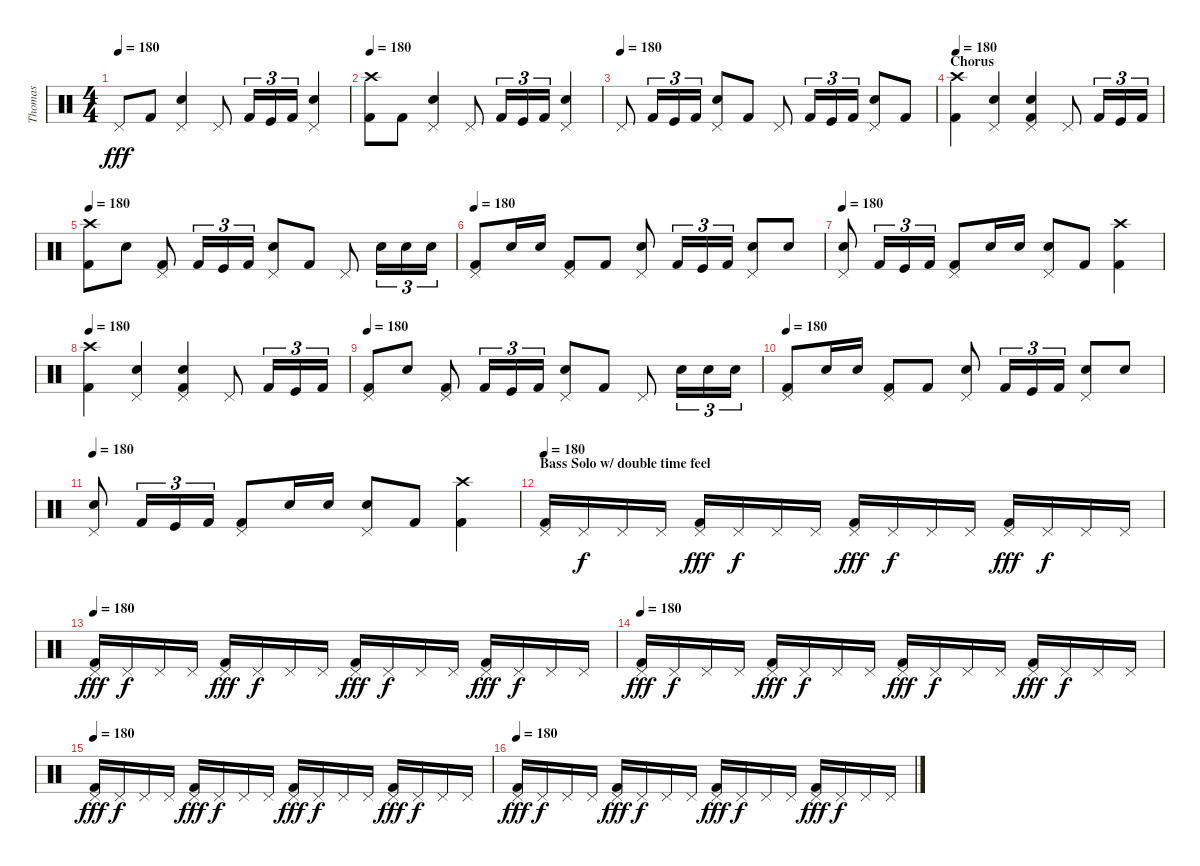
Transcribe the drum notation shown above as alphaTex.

\track ("Thomas" "Thomas") {instrument percussion}
\staff {score}
\articulation defaults
\ts (4 4)
\tempo 180
\clef neutral
\ks c "Pedal Hi-Hat (hit)".8{dy fff} "Kick (hit) 2".8
("Pedal Hi-Hat (hit)" "Snare (hit) 2").4 "Pedal Hi-Hat (hit)".8 "Kick (hit) 2".16{tu (3 2)} "Kick (hit)".16{tu (3 2)} "Kick (hit) 2".16{tu (3 2)} ("Pedal Hi-Hat (hit)" "Snare (hit) 2").4 |
\tempo 180
("Crash high (hit)" "Kick (hit) 2").8 "Kick (hit) 2".8 ("Pedal Hi-Hat (hit)" "Snare (hit) 2").4 "Pedal Hi-Hat (hit)".8 "Kick (hit) 2".16{tu (3 2)} "Kick (hit)".16{tu (3 2)} "Kick (hit) 2".16{tu (3 2)} ("Pedal Hi-Hat (hit)" "Snare (hit) 2").4 |
\tempo (180)
"Pedal Hi-Hat (hit)".8 "Kick (hit) 2".16{tu (3 2)} "Kick (hit)".16{tu (3 2)} "Kick (hit) 2".16{tu (3 2)} ("Pedal Hi-Hat (hit)" "Snare (hit) 2").8 "Kick (hit) 2".8 "Pedal Hi-Hat (hit)".8 "Kick (hit) 2".16{tu (3 2)} "Kick (hit)".16{tu (3 2)} "Kick (hit) 2".16{tu (3 2)} ("Pedal Hi-Hat (hit)" "Snare (hit) 2").8 "Kick (hit) 2".8 |
\section ("" "Chorus")
\tempo 180
("Crash high (hit)" "Kick (hit) 2").4 ("Pedal Hi-Hat (hit)" "Snare (hit) 2").4 ("Pedal Hi-Hat (hit)" "Snare (hit) 2" "Kick (hit) 2").4 "Pedal Hi-Hat (hit)".8 "Kick (hit) 2".16{tu (3 2)} "Kick (hit)".16{tu (3 2)} "Kick (hit) 2".16{tu (3 2)} |
\tempo 180
("Crash high (hit)" "Kick (hit) 2").8 "Snare (hit) 2".8 ("Pedal Hi-Hat (hit)" "Kick (hit) 2").8 "Kick (hit) 2".16{tu (3 2)} "Kick (hit)".16{tu (3 2)} "Kick (hit) 2".16{tu (3 2)} ("Pedal Hi-Hat (hit)" "Snare (hit) 2").8 "Kick (hit) 2".8 "Pedal Hi-Hat (hit)".8 "Snare (hit) 2".16{tu (3 2)} "Snare (hit) 2".16{tu (3 2)} "Snare (hit) 2".16{tu (3 2)} |
\tempo 180
("Pedal Hi-Hat (hit)" "Kick (hit) 2").8 "Snare (hit) 2".16 "Snare (hit) 2".16 ("Pedal Hi-Hat (hit)" "Kick (hit) 2").8 "Kick (hit) 2".8 ("Pedal Hi-Hat (hit)" "Snare (hit) 2").8 "Kick (hit) 2".16{tu (3 2)} "Kick (hit)".16{tu (3 2)} "Kick (hit) 2".16{tu (3 2)} ("Pedal Hi-Hat (hit)" "Snare (hit) 2").8 "Snare (hit) 2".8 |
\tempo 180
("Pedal Hi-Hat (hit)" "Snare (hit) 2").8 "Kick (hit) 2".16{tu (3 2)} "Kick (hit)".16{tu (3 2)} "Kick (hit) 2".16{tu (3 2)} ("Pedal Hi-Hat (hit)" "Kick (hit) 2").8 "Snare (hit) 2".16 "Snare (hit) 2".16 ("Pedal Hi-Hat (hit)" "Snare (hit) 2").8 "Kick (hit) 2".8 ("Crash high (hit)" "Kick (hit) 2").4 |
\tempo 180
("Crash high (hit)" "Kick (hit) 2").4 ("Pedal Hi-Hat (hit)" "Snare (hit) 2").4 ("Pedal Hi-Hat (hit)" "Snare (hit) 2" "Kick (hit) 2").4 "Pedal Hi-Hat (hit)".8 "Kick (hit) 2".16{tu (3 2)} "Kick (hit)".16{tu (3 2)} "Kick (hit) 2".16{tu (3 2)} |
\tempo 180
("Pedal Hi-Hat (hit)" "Kick (hit) 2").8 "Snare (hit) 2".8 ("Pedal Hi-Hat (hit)" "Kick (hit) 2").8 "Kick (hit) 2".16{tu (3 2)} "Kick (hit)".16{tu (3 2)} "Kick (hit) 2".16{tu (3 2)} ("Pedal Hi-Hat (hit)" "Snare (hit) 2").8 "Kick (hit) 2".8 "Pedal Hi-Hat (hit)".8 "Snare (hit) 2".16{tu (3 2)} "Snare (hit) 2".16{tu (3 2)} "Snare (hit) 2".16{tu (3 2)} |
\tempo 180
("Pedal Hi-Hat (hit)" "Kick (hit) 2").8 "Snare (hit) 2".16 "Snare (hit) 2".16 ("Pedal Hi-Hat (hit)" "Kick (hit) 2").8 "Kick (hit) 2".8 ("Pedal Hi-Hat (hit)" "Snare (hit) 2").8 "Kick (hit) 2".16{tu (3 2)} "Kick (hit)".16{tu (3 2)} "Kick (hit) 2".16{tu (3 2)} ("Pedal Hi-Hat (hit)" "Snare (hit) 2").8 "Snare (hit) 2".8 |
\tempo 180
("Pedal Hi-Hat (hit)" "Snare (hit) 2").8 "Kick (hit) 2".16{tu (3 2)} "Kick (hit)".16{tu (3 2)} "Kick (hit) 2".16{tu (3 2)} ("Pedal Hi-Hat (hit)" "Kick (hit) 2").8 "Snare (hit) 2".16 "Snare (hit) 2".16 ("Pedal Hi-Hat (hit)" "Snare (hit) 2").8 "Kick (hit) 2".8 ("Crash high (hit)" "Kick (hit) 2").4 |
\section ("" "Bass Solo w/ double time feel")
\tempo 180
("Pedal Hi-Hat (hit)" "Kick (hit) 2").16 "Pedal Hi-Hat (hit)".16{dy f} "Pedal Hi-Hat (hit)".16 "Pedal Hi-Hat (hit)".16 ("Pedal Hi-Hat (hit)" "Kick (hit) 2").16{dy fff} "Pedal Hi-Hat (hit)".16{dy f} "Pedal Hi-Hat (hit)".16 "Pedal Hi-Hat (hit)".16 ("Pedal Hi-Hat (hit)" "Kick (hit) 2").16{dy fff} "Pedal Hi-Hat (hit)".16{dy f} "Pedal Hi-Hat (hit)".16 "Pedal Hi-Hat (hit)".16 ("Pedal Hi-Hat (hit)" "Kick (hit) 2").16{dy fff} "Pedal Hi-Hat (hit)".16{dy f} "Pedal Hi-Hat (hit)".16 "Pedal Hi-Hat (hit)".16 |
\tempo 180
("Pedal Hi-Hat (hit)" "Kick (hit) 2").16{dy fff} "Pedal Hi-Hat (hit)".16{dy f} "Pedal Hi-Hat (hit)".16 "Pedal Hi-Hat (hit)".16 ("Pedal Hi-Hat (hit)" "Kick (hit) 2").16{dy fff} "Pedal Hi-Hat (hit)".16{dy f} "Pedal Hi-Hat (hit)".16 "Pedal Hi-Hat (hit)".16 ("Pedal Hi-Hat (hit)" "Kick (hit) 2").16{dy fff} "Pedal Hi-Hat (hit)".16{dy f} "Pedal Hi-Hat (hit)".16 "Pedal Hi-Hat (hit)".16 ("Pedal Hi-Hat (hit)" "Kick (hit) 2").16{dy fff} "Pedal Hi-Hat (hit)".16{dy f} "Pedal Hi-Hat (hit)".16 "Pedal Hi-Hat (hit)".16 |
\tempo 180
("Pedal Hi-Hat (hit)" "Kick (hit) 2").16{dy fff} "Pedal Hi-Hat (hit)".16{dy f} "Pedal Hi-Hat (hit)".16 "Pedal Hi-Hat (hit)".16 ("Pedal Hi-Hat (hit)" "Kick (hit) 2").16{dy fff} "Pedal Hi-Hat (hit)".16{dy f} "Pedal Hi-Hat (hit)".16 "Pedal Hi-Hat (hit)".16 ("Pedal Hi-Hat (hit)" "Kick (hit) 2").16{dy fff} "Pedal Hi-Hat (hit)".16{dy f} "Pedal Hi-Hat (hit)".16 "Pedal Hi-Hat (hit)".16 ("Pedal Hi-Hat (hit)" "Kick (hit) 2").16{dy fff} "Pedal Hi-Hat (hit)".16{dy f} "Pedal Hi-Hat (hit)".16 "Pedal Hi-Hat (hit)".16 |
\tempo 180
("Pedal Hi-Hat (hit)" "Kick (hit) 2").16{dy fff} "Pedal Hi-Hat (hit)".16{dy f} "Pedal Hi-Hat (hit)".16 "Pedal Hi-Hat (hit)".16 ("Pedal Hi-Hat (hit)" "Kick (hit) 2").16{dy fff} "Pedal Hi-Hat (hit)".16{dy f} "Pedal Hi-Hat (hit)".16 "Pedal Hi-Hat (hit)".16 ("Pedal Hi-Hat (hit)" "Kick (hit) 2").16{dy fff} "Pedal Hi-Hat (hit)".16{dy f} "Pedal Hi-Hat (hit)".16 "Pedal Hi-Hat (hit)".16 ("Pedal Hi-Hat (hit)" "Kick (hit) 2").16{dy fff} "Pedal Hi-Hat (hit)".16{dy f} "Pedal Hi-Hat (hit)".16 "Pedal Hi-Hat (hit)".16 |
\tempo 180
("Pedal Hi-Hat (hit)" "Kick (hit) 2").16{dy fff} "Pedal Hi-Hat (hit)".16{dy f} "Pedal Hi-Hat (hit)".16 "Pedal Hi-Hat (hit)".16 ("Pedal Hi-Hat (hit)" "Kick (hit) 2").16{dy fff} "Pedal Hi-Hat (hit)".16{dy f} "Pedal Hi-Hat (hit)".16 "Pedal Hi-Hat (hit)".16 ("Pedal Hi-Hat (hit)" "Kick (hit) 2").16{dy fff} "Pedal Hi-Hat (hit)".16{dy f} "Pedal Hi-Hat (hit)".16 "Pedal Hi-Hat (hit)".16 ("Pedal Hi-Hat (hit)" "Kick (hit) 2").16{dy fff} "Pedal Hi-Hat (hit)".16{dy f} "Pedal Hi-Hat (hit)".16 "Pedal Hi-Hat (hit)".16
